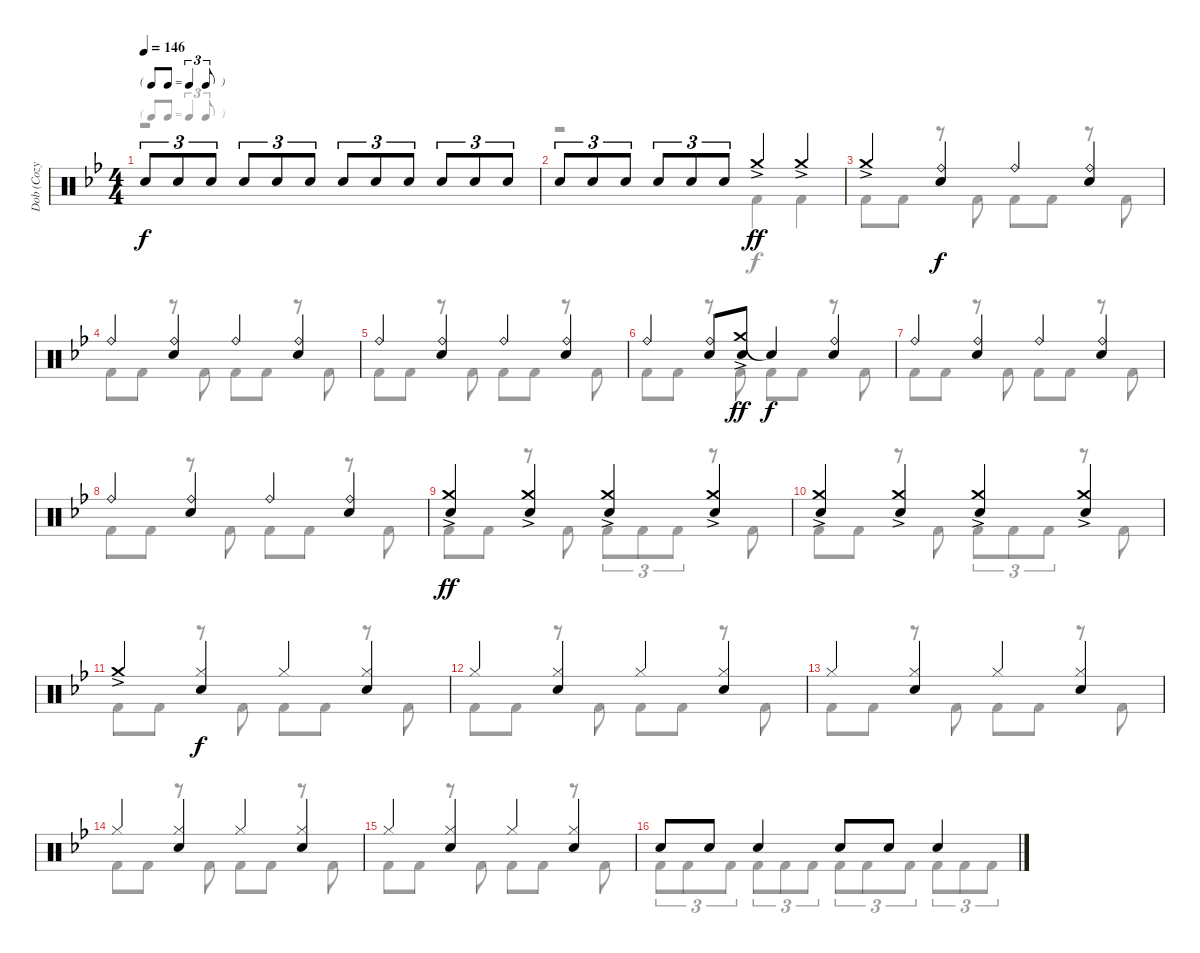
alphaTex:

\track ("Dob (Cozy Powell)" "Dob (Cozy ") {instrument percussion}
\staff {score}
\articulation defaults
\voice
\ts (4 4)
\tf triplet8th
\tempo 146
\clef neutral
\ks bb "Electric Snare (hit)".8{tu (3 2) dy f} "Electric Snare (hit)".8{tu (3 2)} "Electric Snare (hit)".8{tu (3 2)} "Electric Snare (hit)".8{tu (3 2)} "Electric Snare (hit)".8{tu (3 2)} "Electric Snare (hit)".8{tu (3 2)} "Electric Snare (hit)".8{tu (3 2)} "Electric Snare (hit)".8{tu (3 2)} "Electric Snare (hit)".8{tu (3 2)} "Electric Snare (hit)".8{tu (3 2)} "Electric Snare (hit)".8{tu (3 2)} "Electric Snare (hit)".8{tu (3 2)}
|
"Electric Snare (hit)".8{tu (3 2)} "Electric Snare (hit)".8{tu (3 2)} "Electric Snare (hit)".8{tu (3 2)} "Electric Snare (hit)".8{tu (3 2)} "Electric Snare (hit)".8{tu (3 2)} "Electric Snare (hit)".8{tu (3 2)} "Crash medium (hit)"{ac}.4{dy ff} "Crash medium (hit)"{ac}.4 |
"Crash medium (hit)"{ac}.4 ("Ride (bell)" "Electric Snare (hit)").4{dy f} "Ride (bell)".4 ("Ride (bell)" "Electric Snare (hit)").4 |
"Ride (bell)".4 ("Ride (bell)" "Electric Snare (hit)").4 "Ride (bell)".4 ("Ride (bell)" "Electric Snare (hit)").4 |
"Ride (bell)".4 ("Ride (bell)" "Electric Snare (hit)").4 "Ride (bell)".4 ("Ride (bell)" "Electric Snare (hit)").4 |
"Ride (bell)".4 ("Ride (bell)" "Electric Snare (hit)").8 ("Crash medium (hit)"{ac} "Electric Snare (hit)").8{dy ff} "Snare (hit)"{t}.4{dy f} ("Ride (bell)" "Electric Snare (hit)").4 |
"Ride (bell)".4 ("Ride (bell)" "Electric Snare (hit)").4 "Ride (bell)".4 ("Ride (bell)" "Electric Snare (hit)").4 |
"Ride (bell)".4 ("Ride (bell)" "Electric Snare (hit)").4 "Ride (bell)".4 ("Ride (bell)" "Electric Snare (hit)").4 |
("Crash medium (hit)"{ac} "Electric Snare (hit)").4{dy ff} ("Crash medium (hit)"{ac} "Electric Snare (hit)").4 ("Crash medium (hit)"{ac} "Electric Snare (hit)").4 ("Crash medium (hit)"{ac} "Electric Snare (hit)").4 |
("Crash medium (hit)"{ac} "Electric Snare (hit)").4 ("Crash medium (hit)"{ac} "Electric Snare (hit)").4 ("Crash medium (hit)"{ac} "Electric Snare (hit)").4 ("Crash medium (hit)"{ac} "Electric Snare (hit)").4 |
"Crash medium (hit)"{ac}.4 ("Hi-Hat (closed)" "Electric Snare (hit)").4{dy f} "Hi-Hat (closed)".4 ("Hi-Hat (closed)" "Electric Snare (hit)").4 |
"Hi-Hat (closed)".4 ("Hi-Hat (closed)" "Electric Snare (hit)").4 "Hi-Hat (closed)".4 ("Hi-Hat (closed)" "Electric Snare (hit)").4 |
"Hi-Hat (closed)".4 ("Hi-Hat (closed)" "Electric Snare (hit)").4 "Hi-Hat (closed)".4 ("Hi-Hat (closed)" "Electric Snare (hit)").4 |
"Hi-Hat (closed)".4 ("Hi-Hat (closed)" "Electric Snare (hit)").4 "Hi-Hat (closed)".4 ("Hi-Hat (closed)" "Electric Snare (hit)").4 |
"Hi-Hat (closed)".4 ("Hi-Hat (closed)" "Electric Snare (hit)").4 "Hi-Hat (closed)".4 ("Hi-Hat (closed)" "Electric Snare (hit)").4 |
"Electric Snare (hit)".8 "Electric Snare (hit)".8 "Electric Snare (hit)".4 "Electric Snare (hit)".8 "Electric Snare (hit)".8 "Electric Snare (hit)".4
\voice
\clef neutral
\ottava regular
\simile none
\ks bb
r.1{dy f} |
r.2 "Kick (hit) 2".4 "Kick (hit) 2".4 |
"Kick (hit) 2".8 "Kick (hit) 2".8 r.8 "Kick (hit) 2".8 "Kick (hit) 2".8 "Kick (hit) 2".8 r.8 "Kick (hit) 2".8 |
"Kick (hit) 2".8 "Kick (hit) 2".8 r.8 "Kick (hit) 2".8 "Kick (hit) 2".8 "Kick (hit) 2".8 r.8 "Kick (hit) 2".8 |
"Kick (hit) 2".8 "Kick (hit) 2".8 r.8 "Kick (hit) 2".8 "Kick (hit) 2".8 "Kick (hit) 2".8 r.8 "Kick (hit) 2".8 |
"Kick (hit) 2".8 "Kick (hit) 2".8 r.8 "Kick (hit) 2".8 "Kick (hit) 2".8 "Kick (hit) 2".8 r.8 "Kick (hit) 2".8 |
"Kick (hit) 2".8 "Kick (hit) 2".8 r.8 "Kick (hit) 2".8 "Kick (hit) 2".8 "Kick (hit) 2".8 r.8 "Kick (hit) 2".8 |
"Kick (hit) 2".8 "Kick (hit) 2".8 r.8 "Kick (hit) 2".8 "Kick (hit) 2".8 "Kick (hit) 2".8 r.8 "Kick (hit) 2".8 |
"Kick (hit) 2".8 "Kick (hit) 2".8 r.8 "Kick (hit) 2".8 "Kick (hit) 2".8{tu (3 2)} "Kick (hit) 2".8{tu (3 2)} "Kick (hit) 2".8{tu (3 2)} r.8 "Kick (hit) 2".8 |
"Kick (hit) 2".8 "Kick (hit) 2".8 r.8 "Kick (hit) 2".8 "Kick (hit) 2".8{tu (3 2)} "Kick (hit) 2".8{tu (3 2)} "Kick (hit) 2".8{tu (3 2)} r.8 "Kick (hit) 2".8 |
"Kick (hit) 2".8 "Kick (hit) 2".8 r.8 "Kick (hit) 2".8 "Kick (hit) 2".8 "Kick (hit) 2".8 r.8 "Kick (hit) 2".8 |
"Kick (hit) 2".8 "Kick (hit) 2".8 r.8 "Kick (hit) 2".8 "Kick (hit) 2".8 "Kick (hit) 2".8 r.8 "Kick (hit) 2".8 |
"Kick (hit) 2".8 "Kick (hit) 2".8 r.8 "Kick (hit) 2".8 "Kick (hit) 2".8 "Kick (hit) 2".8 r.8 "Kick (hit) 2".8 |
"Kick (hit) 2".8 "Kick (hit) 2".8 r.8 "Kick (hit) 2".8 "Kick (hit) 2".8 "Kick (hit) 2".8 r.8 "Kick (hit) 2".8 |
"Kick (hit) 2".8 "Kick (hit) 2".8 r.8 "Kick (hit) 2".8 "Kick (hit) 2".8 "Kick (hit) 2".8 r.8 "Kick (hit) 2".8 |
"Kick (hit) 2".8{tu (3 2)} "Kick (hit) 2".8{tu (3 2)} "Kick (hit) 2".8{tu (3 2)} "Kick (hit) 2".8{tu (3 2)} "Kick (hit) 2".8{tu (3 2)} "Kick (hit) 2".8{tu (3 2)} "Kick (hit) 2".8{tu (3 2)} "Kick (hit) 2".8{tu (3 2)} "Kick (hit) 2".8{tu (3 2)} "Kick (hit) 2".8{tu (3 2)} "Kick (hit) 2".8{tu (3 2)} "Kick (hit) 2".8{tu (3 2)}
